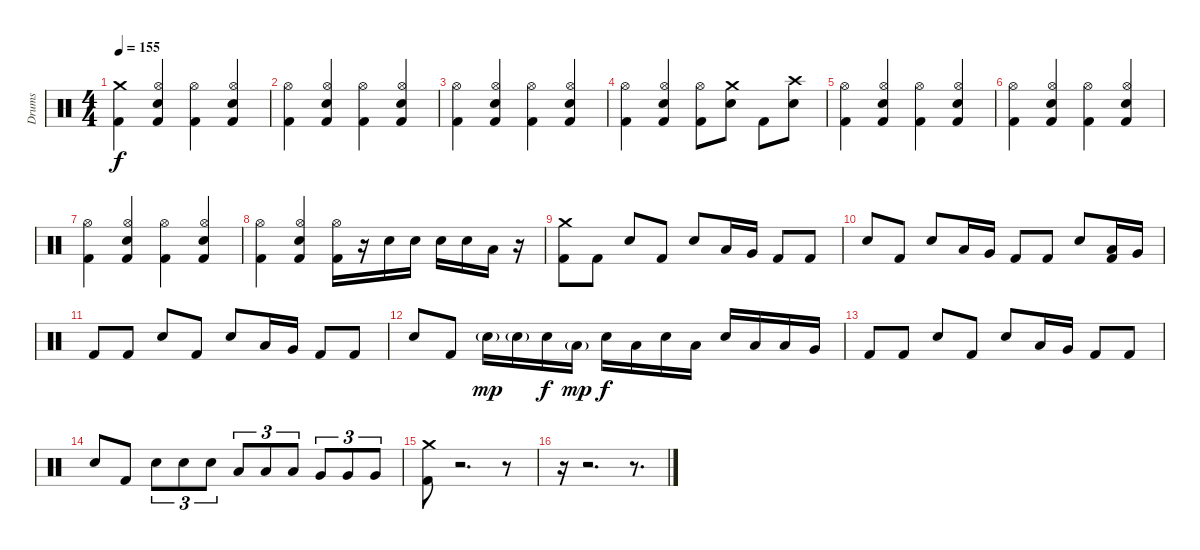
\track ("Drums" "Drums") {instrument percussion}
\staff {score}
\articulation defaults
\ts (4 4)
\tempo 155
\clef neutral
\ks c
("Crash medium (hit)" "Kick (hit) 2").4{dy f} ("Hi-Hat (open)" "Kick (hit) 2" "Electric Snare (hit)").4 ("Hi-Hat (open)" "Kick (hit) 2").4 ("Hi-Hat (open)" "Kick (hit) 2" "Electric Snare (hit)").4 |
("Hi-Hat (open)" "Kick (hit) 2").4 ("Hi-Hat (open)" "Kick (hit) 2" "Electric Snare (hit)").4 ("Hi-Hat (open)" "Kick (hit) 2").4 ("Hi-Hat (open)" "Kick (hit) 2" "Electric Snare (hit)").4 |
("Hi-Hat (open)" "Kick (hit) 2").4 ("Hi-Hat (open)" "Kick (hit) 2" "Electric Snare (hit)").4 ("Hi-Hat (open)" "Kick (hit) 2").4 ("Hi-Hat (open)" "Kick (hit) 2" "Electric Snare (hit)").4 |
("Hi-Hat (open)" "Kick (hit) 2").4 ("Hi-Hat (open)" "Kick (hit) 2" "Electric Snare (hit)").4 ("Hi-Hat (open)" "Kick (hit) 2").8 ("Crash medium (hit)" "Electric Snare (hit)").8 "Kick (hit) 2".8 ("Crash high (hit)" "Electric Snare (hit)").8 |
("Hi-Hat (open)" "Kick (hit) 2").4 ("Hi-Hat (open)" "Kick (hit) 2" "Electric Snare (hit)").4 ("Hi-Hat (open)" "Kick (hit) 2").4 ("Hi-Hat (open)" "Kick (hit) 2" "Electric Snare (hit)").4 |
("Hi-Hat (open)" "Kick (hit) 2").4 ("Hi-Hat (open)" "Kick (hit) 2" "Electric Snare (hit)").4 ("Hi-Hat (open)" "Kick (hit) 2").4 ("Hi-Hat (open)" "Kick (hit) 2" "Electric Snare (hit)").4 |
("Hi-Hat (open)" "Kick (hit) 2").4 ("Hi-Hat (open)" "Kick (hit) 2" "Electric Snare (hit)").4 ("Hi-Hat (open)" "Kick (hit) 2").4 ("Hi-Hat (open)" "Kick (hit) 2" "Electric Snare (hit)").4 |
("Hi-Hat (open)" "Kick (hit) 2").4 ("Hi-Hat (open)" "Kick (hit) 2" "Electric Snare (hit)").4 ("Hi-Hat (open)" "Kick (hit) 2").16 r.16 "Electric Snare (hit)".16 "Electric Snare (hit)".16 "Electric Snare (hit)".16 "Electric Snare (hit)".16 "Low Tom (hit)".16 r.16 |
("Kick (hit) 2" "Crash medium (hit)").8 "Kick (hit) 2".8 "Electric Snare (hit)".8 "Kick (hit) 2".8 "Electric Snare (hit)".8 "Low Tom (hit)".16 "Very Low Tom (hit)".16 "Kick (hit) 2".8 "Kick (hit) 2".8 |
"Electric Snare (hit)".8 "Kick (hit) 2".8 "Electric Snare (hit)".8 "Low Tom (hit)".16 "Very Low Tom (hit)".16 "Kick (hit) 2".8 "Kick (hit) 2".8 "Electric Snare (hit)".8 ("Kick (hit) 2" "Low Tom (hit)").16 "Very Low Tom (hit)".16 |
"Kick (hit) 2".8 "Kick (hit) 2".8 "Electric Snare (hit)".8 "Kick (hit) 2".8 "Electric Snare (hit)".8 "Low Tom (hit)".16 "Very Low Tom (hit)".16 "Kick (hit) 2".8 "Kick (hit) 2".8 |
"Electric Snare (hit)".8 "Kick (hit) 2".8 "Electric Snare (hit)"{g}.16{dy mp} "Electric Snare (hit)"{g}.16 "Electric Snare (hit)".16{dy f} "Low Tom (hit)"{g}.16{dy mp} "Electric Snare (hit)".16{dy f} "Low Tom (hit)".16 "Electric Snare (hit)".16 "Low Tom (hit)".16 "Electric Snare (hit)".16 "Low Tom (hit)".16 "Low Tom (hit)".16 "Very Low Tom (hit)".16 |
"Kick (hit) 2".8 "Kick (hit) 2".8 "Electric Snare (hit)".8 "Kick (hit) 2".8 "Electric Snare (hit)".8 "Low Tom (hit)".16 "Very Low Tom (hit)".16 "Kick (hit) 2".8 "Kick (hit) 2".8 |
"Electric Snare (hit)".8 "Kick (hit) 2".8 "Electric Snare (hit)".8{tu (3 2)} "Electric Snare (hit)".8{tu (3 2)} "Electric Snare (hit)".8{tu (3 2)} "Low Tom (hit)".8{tu (3 2)} "Low Tom (hit)".8{tu (3 2)} "Low Tom (hit)".8{tu (3 2)} "Very Low Tom (hit)".8{tu (3 2)} "Very Low Tom (hit)".8{tu (3 2)} "Very Low Tom (hit)".8{tu (3 2)} |
("Crash medium (hit)" "Kick (hit) 2").8 r.2{d} r.8 |
r.16 r.2{d} r.8{d}
